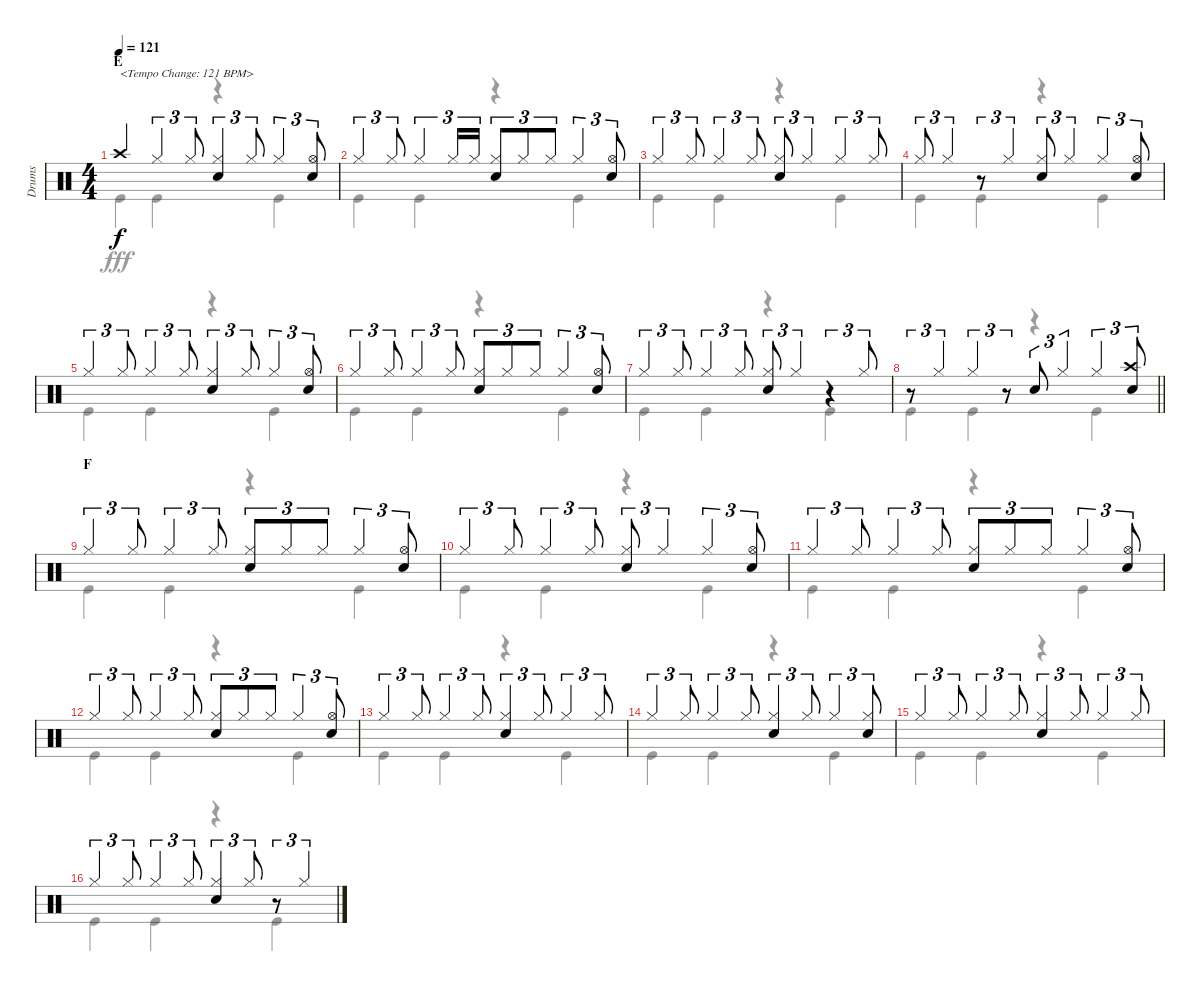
\track ("Drums" "Drums") {instrument percussion}
\staff {score}
\articulation defaults
\voice
\ts (4 4)
\section ("" "E")
\tempo 121
\clef neutral
\ks c "Crash high (hit)".4{txt "<Tempo Change: 121 BPM>" dy f} "Hi-Hat (closed)".4{tu (3 2)} "Hi-Hat (closed)".8{tu (3 2)}
("Hi-Hat (closed)" "Snare (hit) 2").4{tu (3 2)} "Hi-Hat (closed)".8{tu (3 2)} "Hi-Hat (closed)".4{tu (3 2)} ("Hi-Hat (open)" "Snare (hit) 2").8{tu (3 2)} |
"Hi-Hat (closed)".4{tu (3 2)} "Hi-Hat (closed)".8{tu (3 2)} "Hi-Hat (closed)".4{tu (3 2)} "Hi-Hat (closed)".16{tu (3 2)} "Hi-Hat (closed)".16{tu (3 2)} ("Hi-Hat (closed)" "Snare (hit) 2").8{tu (3 2)} "Hi-Hat (closed)".8{tu (3 2)} "Hi-Hat (closed)".8{tu (3 2)} "Hi-Hat (closed)".4{tu (3 2)} ("Hi-Hat (open)" "Snare (hit) 2").8{tu (3 2)} |
"Hi-Hat (closed)".4{tu (3 2)} "Hi-Hat (closed)".8{tu (3 2)} "Hi-Hat (closed)".4{tu (3 2)} "Hi-Hat (closed)".8{tu (3 2)} ("Hi-Hat (closed)" "Snare (hit) 2").8{tu (3 2)} "Hi-Hat (closed)".4{tu (3 2)} "Hi-Hat (closed)".4{tu (3 2)} "Hi-Hat (closed)".8{tu (3 2)} |
"Hi-Hat (closed)".8{tu (3 2)} "Hi-Hat (closed)".4{tu (3 2)} r.8{tu (3 2)} "Hi-Hat (closed)".4{tu (3 2)} ("Hi-Hat (closed)" "Snare (hit) 2").8{tu (3 2)} "Hi-Hat (closed)".4{tu (3 2)} "Hi-Hat (closed)".4{tu (3 2)} ("Hi-Hat (open)" "Snare (hit) 2").8{tu (3 2)} |
"Hi-Hat (closed)".4{tu (3 2)} "Hi-Hat (closed)".8{tu (3 2)} "Hi-Hat (closed)".4{tu (3 2)} "Hi-Hat (closed)".8{tu (3 2)} ("Hi-Hat (closed)" "Snare (hit) 2").4{tu (3 2)} "Hi-Hat (closed)".8{tu (3 2)} "Hi-Hat (closed)".4{tu (3 2)} ("Hi-Hat (open)" "Snare (hit) 2").8{tu (3 2)} |
"Hi-Hat (closed)".4{tu (3 2)} "Hi-Hat (closed)".8{tu (3 2)} "Hi-Hat (closed)".4{tu (3 2)} "Hi-Hat (closed)".8{tu (3 2)} ("Hi-Hat (closed)" "Snare (hit) 2").8{tu (3 2)} "Hi-Hat (closed)".8{tu (3 2)} "Hi-Hat (closed)".8{tu (3 2)} "Hi-Hat (closed)".4{tu (3 2)} ("Hi-Hat (open)" "Snare (hit) 2").8{tu (3 2)} |
"Hi-Hat (closed)".4{tu (3 2)} "Hi-Hat (closed)".8{tu (3 2)} "Hi-Hat (closed)".4{tu (3 2)} "Hi-Hat (closed)".8{tu (3 2)} ("Hi-Hat (closed)" "Snare (hit) 2").8{tu (3 2)} "Hi-Hat (closed)".4{tu (3 2)} r.4{tu (3 2)} "Hi-Hat (closed)".8{tu (3 2)} |
\barLineRight lightlight
r.8{tu (3 2)} "Hi-Hat (closed)".4{tu (3 2)} "Hi-Hat (closed)".4{tu (3 2)} r.8{tu (3 2)} "Snare (hit) 2".8{tu (3 2)} "Hi-Hat (closed)".4{tu (3 2)} "Hi-Hat (closed)".4{tu (3 2)} ("Crash high (hit)" "Snare (hit) 2").8{tu (3 2)} |
\section ("" "F")
"Hi-Hat (closed)".4{tu (3 2)} "Hi-Hat (closed)".8{tu (3 2)} "Hi-Hat (closed)".4{tu (3 2)} "Hi-Hat (closed)".8{tu (3 2)} ("Hi-Hat (closed)" "Snare (hit) 2").8{tu (3 2)} "Hi-Hat (closed)".8{tu (3 2)} "Hi-Hat (closed)".8{tu (3 2)} "Hi-Hat (closed)".4{tu (3 2)} ("Hi-Hat (open)" "Snare (hit) 2").8{tu (3 2)} |
"Hi-Hat (closed)".4{tu (3 2)} "Hi-Hat (closed)".8{tu (3 2)} "Hi-Hat (closed)".4{tu (3 2)} "Hi-Hat (closed)".8{tu (3 2)} ("Hi-Hat (closed)" "Snare (hit) 2").8{tu (3 2)} "Hi-Hat (closed)".4{tu (3 2)} "Hi-Hat (closed)".4{tu (3 2)} ("Hi-Hat (open)" "Snare (hit) 2").8{tu (3 2)} |
"Hi-Hat (closed)".4{tu (3 2)} "Hi-Hat (closed)".8{tu (3 2)} "Hi-Hat (closed)".4{tu (3 2)} "Hi-Hat (closed)".8{tu (3 2)} ("Hi-Hat (closed)" "Snare (hit) 2").8{tu (3 2)} "Hi-Hat (closed)".8{tu (3 2)} "Hi-Hat (closed)".8{tu (3 2)} "Hi-Hat (closed)".4{tu (3 2)} ("Hi-Hat (open)" "Snare (hit) 2").8{tu (3 2)} |
"Hi-Hat (closed)".4{tu (3 2)} "Hi-Hat (closed)".8{tu (3 2)} "Hi-Hat (closed)".4{tu (3 2)} "Hi-Hat (closed)".8{tu (3 2)} ("Hi-Hat (closed)" "Snare (hit) 2").8{tu (3 2)} "Hi-Hat (closed)".8{tu (3 2)} "Hi-Hat (closed)".8{tu (3 2)} "Hi-Hat (closed)".4{tu (3 2)} ("Hi-Hat (open)" "Snare (hit) 2").8{tu (3 2)} |
"Hi-Hat (closed)".4{tu (3 2)} "Hi-Hat (closed)".8{tu (3 2)} "Hi-Hat (closed)".4{tu (3 2)} "Hi-Hat (closed)".8{tu (3 2)} ("Hi-Hat (closed)" "Snare (hit) 2").4{tu (3 2)} "Hi-Hat (closed)".8{tu (3 2)} "Hi-Hat (closed)".4{tu (3 2)} "Hi-Hat (closed)".8{tu (3 2)} |
"Hi-Hat (closed)".4{tu (3 2)} "Hi-Hat (closed)".8{tu (3 2)} "Hi-Hat (closed)".4{tu (3 2)} "Hi-Hat (closed)".8{tu (3 2)} ("Hi-Hat (closed)" "Snare (hit) 2").4{tu (3 2)} "Hi-Hat (closed)".8{tu (3 2)} "Hi-Hat (closed)".4{tu (3 2)} ("Hi-Hat (closed)" "Snare (hit) 2").8{tu (3 2)} |
"Hi-Hat (closed)".4{tu (3 2)} "Hi-Hat (closed)".8{tu (3 2)} "Hi-Hat (closed)".4{tu (3 2)} "Hi-Hat (closed)".8{tu (3 2)} ("Hi-Hat (closed)" "Snare (hit) 2").4{tu (3 2)} "Hi-Hat (closed)".8{tu (3 2)} "Hi-Hat (closed)".4{tu (3 2)} "Hi-Hat (closed)".8{tu (3 2)} |
"Hi-Hat (closed)".4{tu (3 2)} "Hi-Hat (closed)".8{tu (3 2)} "Hi-Hat (closed)".4{tu (3 2)} "Hi-Hat (closed)".8{tu (3 2)} ("Hi-Hat (closed)" "Snare (hit) 2").4{tu (3 2)} "Hi-Hat (closed)".8{tu (3 2)} r.8{tu (3 2)} "Hi-Hat (closed)".4{tu (3 2)}
\voice
\clef neutral
\ottava regular
\simile none
\ks c "Kick (hit)".4{dy fff} "Kick (hit)".4
r.4 "Kick (hit)".4 |
"Kick (hit)".4 "Kick (hit)".4 r.4 "Kick (hit)".4 |
"Kick (hit)".4 "Kick (hit)".4 r.4 "Kick (hit)".4 |
"Kick (hit)".4 "Kick (hit)".4 r.4 "Kick (hit)".4 |
"Kick (hit)".4 "Kick (hit)".4 r.4 "Kick (hit)".4 |
"Kick (hit)".4 "Kick (hit)".4 r.4 "Kick (hit)".4 |
"Kick (hit)".4 "Kick (hit)".4 r.4 "Kick (hit)".4 |
\barLineRight lightlight "Kick (hit)".4 "Kick (hit)".4
r.4 "Kick (hit)".4 |
"Kick (hit)".4 "Kick (hit)".4 r.4 "Kick (hit)".4 |
"Kick (hit)".4 "Kick (hit)".4 r.4 "Kick (hit)".4 |
"Kick (hit)".4 "Kick (hit)".4 r.4 "Kick (hit)".4 |
"Kick (hit)".4 "Kick (hit)".4 r.4 "Kick (hit)".4 |
"Kick (hit)".4 "Kick (hit)".4 r.4 "Kick (hit)".4 |
"Kick (hit)".4 "Kick (hit)".4 r.4 "Kick (hit)".4 |
"Kick (hit)".4 "Kick (hit)".4 r.4 "Kick (hit)".4 |
"Kick (hit)".4 "Kick (hit)".4 r.4 "Kick (hit)".4
